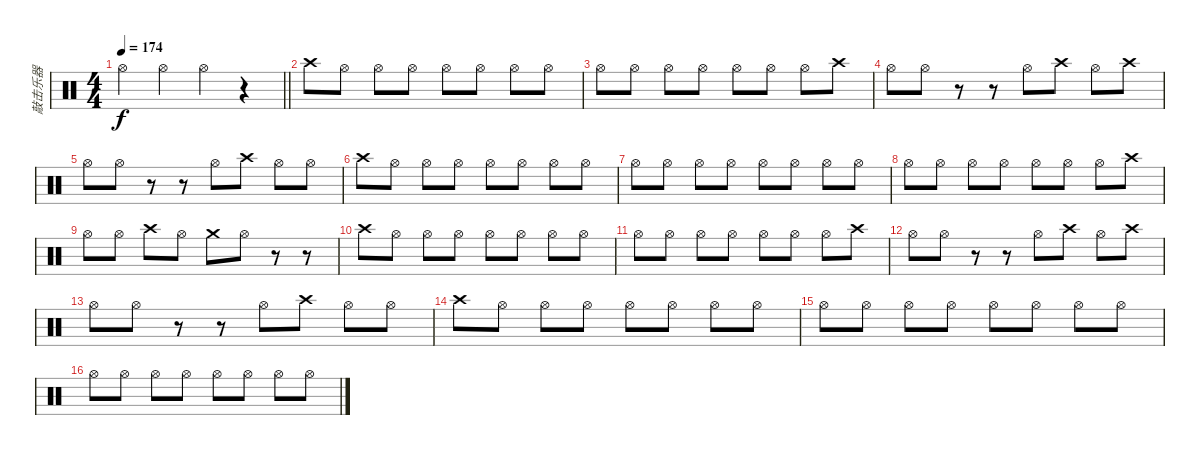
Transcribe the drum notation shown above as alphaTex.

\track ("敲击乐器" "敲击乐器") {instrument percussion}
\staff {score}
\articulation defaults
\ts (4 4)
\tempo 174
\clef neutral
\barLineRight lightlight
\ks c "Hi-Hat (open)".4{dy f} "Hi-Hat (open)".4 "Hi-Hat (open)".4
r.4 |
"Crash high (hit)".8 "Hi-Hat (open)".8 "Hi-Hat (open)".8 "Hi-Hat (open)".8 "Hi-Hat (open)".8 "Hi-Hat (open)".8 "Hi-Hat (open)".8 "Hi-Hat (open)".8 |
"Hi-Hat (open)".8 "Hi-Hat (open)".8 "Hi-Hat (open)".8 "Hi-Hat (open)".8 "Hi-Hat (open)".8 "Hi-Hat (open)".8 "Hi-Hat (open)".8 "Crash high (hit)".8 |
"Hi-Hat (open)".8 "Hi-Hat (open)".8 r.8 r.8 "Hi-Hat (open)".8 "Crash high (hit)".8 "Hi-Hat (open)".8 "Crash high (hit)".8 |
"Hi-Hat (open)".8 "Hi-Hat (open)".8 r.8 r.8 "Hi-Hat (open)".8 "Crash high (hit)".8 "Hi-Hat (open)".8 "Hi-Hat (open)".8 |
"Crash high (hit)".8 "Hi-Hat (open)".8 "Hi-Hat (open)".8 "Hi-Hat (open)".8 "Hi-Hat (open)".8 "Hi-Hat (open)".8 "Hi-Hat (open)".8 "Hi-Hat (open)".8 |
"Hi-Hat (open)".8 "Hi-Hat (open)".8 "Hi-Hat (open)".8 "Hi-Hat (open)".8 "Hi-Hat (open)".8 "Hi-Hat (open)".8 "Hi-Hat (open)".8 "Hi-Hat (open)".8 |
"Hi-Hat (open)".8 "Hi-Hat (open)".8 "Hi-Hat (open)".8 "Hi-Hat (open)".8 "Hi-Hat (open)".8 "Hi-Hat (open)".8 "Hi-Hat (open)".8 "Crash high (hit)".8 |
"Hi-Hat (open)".8 "Hi-Hat (open)".8 "Crash high (hit)".8 "Hi-Hat (open)".8 "Crash medium (hit)".8 "Hi-Hat (open)".8 r.8 r.8 |
"Crash high (hit)".8 "Hi-Hat (open)".8 "Hi-Hat (open)".8 "Hi-Hat (open)".8 "Hi-Hat (open)".8 "Hi-Hat (open)".8 "Hi-Hat (open)".8 "Hi-Hat (open)".8 |
"Hi-Hat (open)".8 "Hi-Hat (open)".8 "Hi-Hat (open)".8 "Hi-Hat (open)".8 "Hi-Hat (open)".8 "Hi-Hat (open)".8 "Hi-Hat (open)".8 "Crash high (hit)".8 |
"Hi-Hat (open)".8 "Hi-Hat (open)".8 r.8 r.8 "Hi-Hat (open)".8 "Crash high (hit)".8 "Hi-Hat (open)".8 "Crash high (hit)".8 |
"Hi-Hat (open)".8 "Hi-Hat (open)".8 r.8 r.8 "Hi-Hat (open)".8 "Crash high (hit)".8 "Hi-Hat (open)".8 "Hi-Hat (open)".8 |
"Crash high (hit)".8 "Hi-Hat (open)".8 "Hi-Hat (open)".8 "Hi-Hat (open)".8 "Hi-Hat (open)".8 "Hi-Hat (open)".8 "Hi-Hat (open)".8 "Hi-Hat (open)".8 |
"Hi-Hat (open)".8 "Hi-Hat (open)".8 "Hi-Hat (open)".8 "Hi-Hat (open)".8 "Hi-Hat (open)".8 "Hi-Hat (open)".8 "Hi-Hat (open)".8 "Hi-Hat (open)".8 |
"Hi-Hat (open)".8 "Hi-Hat (open)".8 "Hi-Hat (open)".8 "Hi-Hat (open)".8 "Hi-Hat (open)".8 "Hi-Hat (open)".8 "Hi-Hat (open)".8 "Hi-Hat (open)".8
